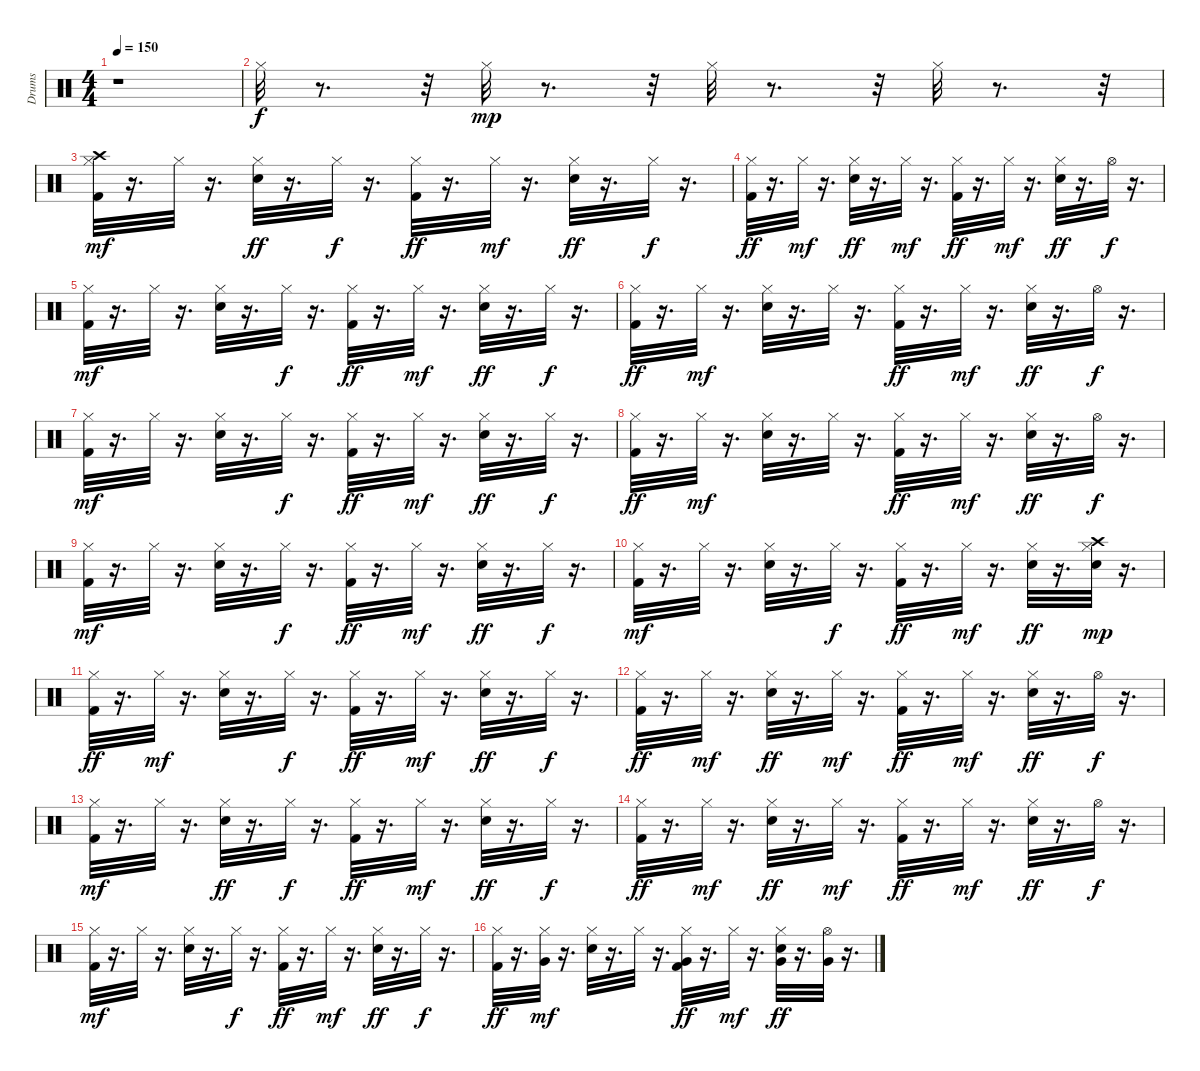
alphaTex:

\track ("Drums" "Drums") {instrument percussion}
\staff {score}
\articulation defaults
\ts (4 4)
\tempo 150
\clef neutral
\ks c
r.1{dy f} |
"Hi-Hat (closed)".32 r.8{d} r.32 "Hi-Hat (closed)".32{dy mp} r.8{d} r.32 "Hi-Hat (closed)".32 r.8{d} r.32 "Hi-Hat (closed)".32 r.8{d} r.32 |
("Kick (hit) 2" "Hi-Hat (closed)" "Crash high (hit)").32{dy mf} r.16{d} "Hi-Hat (closed)".32 r.16{d} ("Hi-Hat (closed)" "Snare (hit) 2").32{dy ff} r.16{d} "Hi-Hat (closed)".32{dy f} r.16{d} ("Hi-Hat (closed)" "Kick (hit) 2").32{dy ff} r.16{d} "Hi-Hat (closed)".32{dy mf} r.16{d} ("Snare (hit) 2" "Hi-Hat (closed)").32{dy ff} r.16{d} "Hi-Hat (closed)".32{dy f} r.16{d} |
("Kick (hit) 2" "Hi-Hat (closed)").32{dy ff} r.16{d} "Hi-Hat (closed)".32{dy mf} r.16{d} ("Hi-Hat (closed)" "Snare (hit) 2").32{dy ff} r.16{d} "Hi-Hat (closed)".32{dy mf} r.16{d} ("Kick (hit) 2" "Hi-Hat (closed)").32{dy ff} r.16{d} "Hi-Hat (closed)".32{dy mf} r.16{d} ("Snare (hit) 2" "Hi-Hat (closed)").32{dy ff} r.16{d} "Hi-Hat (open)".32{dy f} r.16{d} |
("Kick (hit) 2" "Hi-Hat (closed)").32{dy mf} r.16{d} "Hi-Hat (closed)".32 r.16{d} ("Snare (hit) 2" "Hi-Hat (closed)").32 r.16{d} "Hi-Hat (closed)".32{dy f} r.16{d} ("Hi-Hat (closed)" "Kick (hit) 2").32{dy ff} r.16{d} "Hi-Hat (closed)".32{dy mf} r.16{d} ("Snare (hit) 2" "Hi-Hat (closed)").32{dy ff} r.16{d} "Hi-Hat (closed)".32{dy f} r.16{d} |
("Kick (hit) 2" "Hi-Hat (closed)").32{dy ff} r.16{d} "Hi-Hat (closed)".32{dy mf} r.16{d} ("Snare (hit) 2" "Hi-Hat (closed)").32 r.16{d} "Hi-Hat (closed)".32 r.16{d} ("Hi-Hat (closed)" "Kick (hit) 2").32{dy ff} r.16{d} "Hi-Hat (closed)".32{dy mf} r.16{d} ("Snare (hit) 2" "Hi-Hat (closed)").32{dy ff} r.16{d} "Hi-Hat (open)".32{dy f} r.16{d} |
("Kick (hit) 2" "Hi-Hat (closed)").32{dy mf} r.16{d} "Hi-Hat (closed)".32 r.16{d} ("Snare (hit) 2" "Hi-Hat (closed)").32 r.16{d} "Hi-Hat (closed)".32{dy f} r.16{d} ("Hi-Hat (closed)" "Kick (hit) 2").32{dy ff} r.16{d} "Hi-Hat (closed)".32{dy mf} r.16{d} ("Snare (hit) 2" "Hi-Hat (closed)").32{dy ff} r.16{d} "Hi-Hat (closed)".32{dy f} r.16{d} |
("Kick (hit) 2" "Hi-Hat (closed)").32{dy ff} r.16{d} "Hi-Hat (closed)".32{dy mf} r.16{d} ("Snare (hit) 2" "Hi-Hat (closed)").32 r.16{d} "Hi-Hat (closed)".32 r.16{d} ("Hi-Hat (closed)" "Kick (hit) 2").32{dy ff} r.16{d} "Hi-Hat (closed)".32{dy mf} r.16{d} ("Snare (hit) 2" "Hi-Hat (closed)").32{dy ff} r.16{d} "Hi-Hat (open)".32{dy f} r.16{d} |
("Kick (hit) 2" "Hi-Hat (closed)").32{dy mf} r.16{d} "Hi-Hat (closed)".32 r.16{d} ("Snare (hit) 2" "Hi-Hat (closed)").32 r.16{d} "Hi-Hat (closed)".32{dy f} r.16{d} ("Hi-Hat (closed)" "Kick (hit) 2").32{dy ff} r.16{d} "Hi-Hat (closed)".32{dy mf} r.16{d} ("Hi-Hat (closed)" "Snare (hit) 2").32{dy ff} r.16{d} "Hi-Hat (closed)".32{dy f} r.16{d} |
("Kick (hit) 2" "Hi-Hat (closed)").32{dy mf} r.16{d} "Hi-Hat (closed)".32 r.16{d} ("Snare (hit) 2" "Hi-Hat (closed)").32 r.16{d} "Hi-Hat (closed)".32{dy f} r.16{d} ("Hi-Hat (closed)" "Kick (hit) 2").32{dy ff} r.16{d} "Hi-Hat (closed)".32{dy mf} r.16{d} ("Hi-Hat (closed)" "Snare (hit) 2").32{dy ff} r.16{d} ("Snare (hit) 2" "Hi-Hat (closed)" "Crash high (hit)").32{dy mp} r.16{d} |
("Hi-Hat (closed)" "Kick (hit) 2").32{dy ff} r.16{d} "Hi-Hat (closed)".32{dy mf} r.16{d} ("Snare (hit) 2" "Hi-Hat (closed)").32 r.16{d} "Hi-Hat (closed)".32{dy f} r.16{d} ("Kick (hit) 2" "Hi-Hat (closed)").32{dy ff} r.16{d} "Hi-Hat (closed)".32{dy mf} r.16{d} ("Hi-Hat (closed)" "Snare (hit) 2").32{dy ff} r.16{d} "Hi-Hat (closed)".32{dy f} r.16{d} |
("Hi-Hat (closed)" "Kick (hit) 2").32{dy ff} r.16{d} "Hi-Hat (closed)".32{dy mf} r.16{d} ("Hi-Hat (closed)" "Snare (hit) 2").32{dy ff} r.16{d} "Hi-Hat (closed)".32{dy mf} r.16{d} ("Kick (hit) 2" "Hi-Hat (closed)").32{dy ff} r.16{d} "Hi-Hat (closed)".32{dy mf} r.16{d} ("Hi-Hat (closed)" "Snare (hit) 2").32{dy ff} r.16{d} "Hi-Hat (open)".32{dy f} r.16{d} |
("Kick (hit) 2" "Hi-Hat (closed)").32{dy mf} r.16{d} "Hi-Hat (closed)".32 r.16{d} ("Hi-Hat (closed)" "Snare (hit) 2").32{dy ff} r.16{d} "Hi-Hat (closed)".32{dy f} r.16{d} ("Kick (hit) 2" "Hi-Hat (closed)").32{dy ff} r.16{d} "Hi-Hat (closed)".32{dy mf} r.16{d} ("Hi-Hat (closed)" "Snare (hit) 2").32{dy ff} r.16{d} "Hi-Hat (closed)".32{dy f} r.16{d} |
("Kick (hit) 2" "Hi-Hat (closed)").32{dy ff} r.16{d} "Hi-Hat (closed)".32{dy mf} r.16{d} ("Hi-Hat (closed)" "Snare (hit) 2").32{dy ff} r.16{d} "Hi-Hat (closed)".32{dy mf} r.16{d} ("Kick (hit) 2" "Hi-Hat (closed)").32{dy ff} r.16{d} "Hi-Hat (closed)".32{dy mf} r.16{d} ("Snare (hit) 2" "Hi-Hat (closed)").32{dy ff} r.16{d} "Hi-Hat (open)".32{dy f} r.16{d} |
("Kick (hit) 2" "Hi-Hat (closed)").32{dy mf} r.16{d} "Hi-Hat (closed)".32 r.16{d} ("Snare (hit) 2" "Hi-Hat (closed)").32 r.16{d} "Hi-Hat (closed)".32{dy f} r.16{d} ("Hi-Hat (closed)" "Kick (hit) 2").32{dy ff} r.16{d} "Hi-Hat (closed)".32{dy mf} r.16{d} ("Hi-Hat (closed)" "Snare (hit) 2").32{dy ff} r.16{d} "Hi-Hat (closed)".32{dy f} r.16{d} |
("Hi-Hat (closed)" "Kick (hit) 2").32{dy ff} r.16{d} ("Hi-Hat (closed)" "Very Low Tom (hit)").32{dy mf} r.16{d} ("Snare (hit) 2" "Hi-Hat (closed)").32 r.16{d} "Hi-Hat (closed)".32 r.16{d} ("Kick (hit) 2" "Hi-Hat (closed)" "Very Low Tom (hit)").32{dy ff} r.16{d} "Hi-Hat (closed)".32{dy mf} r.16{d} ("Hi-Hat (closed)" "Snare (hit) 2" "Very Low Tom (hit)").32{dy ff} r.16{d} ("Very Low Tom (hit)" "Hi-Hat (open)").32 r.16{d}
